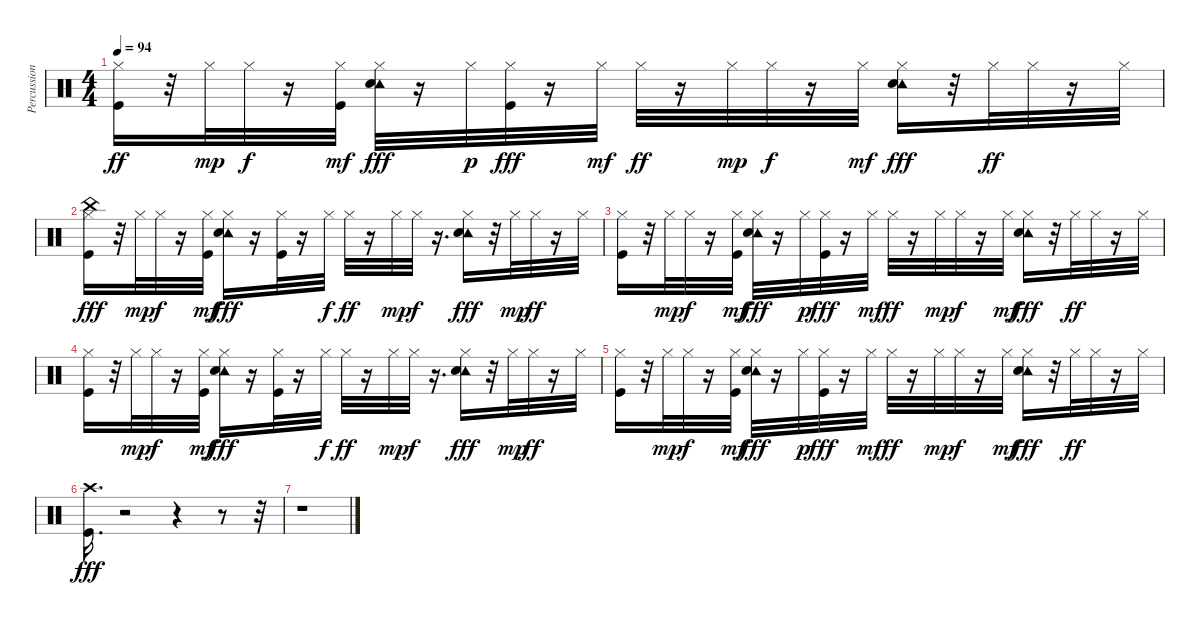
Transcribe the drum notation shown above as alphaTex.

\track ("Percussion" "Percussion") {instrument percussion}
\staff {score}
\articulation defaults
\ts (4 4)
\tempo 94
\clef neutral
\ks c
("Kick (hit)" "Hi-Hat (closed)").16{dy ff} r.32 "Hi-Hat (closed)".32{dy mp} "Hi-Hat (closed)".32{dy f} r.16 ("Kick (hit)" "Hi-Hat (closed)").32{dy mf} ("Hi-Hat (closed)" "Tambourine (hit)" "Snare (hit) 2").32{dy fff} r.16 "Hi-Hat (closed)".32{dy p} ("Kick (hit)" "Hi-Hat (closed)").32{dy fff} r.16 "Hi-Hat (closed)".32{dy mf} "Hi-Hat (closed)".32{dy ff} r.16 "Hi-Hat (closed)".32{dy mp} "Hi-Hat (closed)".32{dy f} r.16 "Hi-Hat (closed)".32{dy mf} ("Hi-Hat (closed)" "Tambourine (hit)" "Snare (hit) 2").16{dy fff} r.32 "Hi-Hat (closed)".32{dy ff} "Hi-Hat (closed)".32 r.16 "Hi-Hat (closed)".32 |
("Kick (hit)" "Hi-Hat (closed)" "China (hit)").16{dy fff} r.32 "Hi-Hat (closed)".32{dy mp} "Hi-Hat (closed)".32{dy f} r.16 ("Kick (hit)" "Hi-Hat (closed)").32{dy mf} ("Hi-Hat (closed)" "Tambourine (hit)" "Snare (hit) 2").16{dy fff} r.16 ("Kick (hit)" "Hi-Hat (closed)").32 r.16 "Hi-Hat (closed)".32{dy f} "Hi-Hat (closed)".32{dy ff} r.16 "Hi-Hat (closed)".32{dy mp} "Hi-Hat (closed)".32{dy f} r.16{d} ("Hi-Hat (closed)" "Tambourine (hit)" "Snare (hit) 2").16{dy fff} r.32 "Hi-Hat (closed)".32{dy mp} "Hi-Hat (closed)".32{dy ff} r.16 "Hi-Hat (closed)".32 |
("Kick (hit)" "Hi-Hat (closed)").16 r.32 "Hi-Hat (closed)".32{dy mp} "Hi-Hat (closed)".32{dy f} r.16 ("Kick (hit)" "Hi-Hat (closed)").32{dy mf} ("Hi-Hat (closed)" "Tambourine (hit)" "Snare (hit) 2").32{dy fff} r.16 "Hi-Hat (closed)".32{dy p} ("Kick (hit)" "Hi-Hat (closed)").32{dy fff} r.16 "Hi-Hat (closed)".32{dy mf} "Hi-Hat (closed)".32{dy ff} r.16 "Hi-Hat (closed)".32{dy mp} "Hi-Hat (closed)".32{dy f} r.16 "Hi-Hat (closed)".32{dy mf} ("Hi-Hat (closed)" "Tambourine (hit)" "Snare (hit) 2").16{dy fff} r.32 "Hi-Hat (closed)".32{dy ff} "Hi-Hat (closed)".32 r.16 "Hi-Hat (closed)".32 |
("Kick (hit)" "Hi-Hat (closed)").16 r.32 "Hi-Hat (closed)".32{dy mp} "Hi-Hat (closed)".32{dy f} r.16 ("Kick (hit)" "Hi-Hat (closed)").32{dy mf} ("Hi-Hat (closed)" "Tambourine (hit)" "Snare (hit) 2").16{dy fff} r.16 ("Kick (hit)" "Hi-Hat (closed)").32 r.16 "Hi-Hat (closed)".32{dy f} "Hi-Hat (closed)".32{dy ff} r.16 "Hi-Hat (closed)".32{dy mp} "Hi-Hat (closed)".32{dy f} r.16{d} ("Hi-Hat (closed)" "Tambourine (hit)" "Snare (hit) 2").16{dy fff} r.32 "Hi-Hat (closed)".32{dy mp} "Hi-Hat (closed)".32{dy ff} r.16 "Hi-Hat (closed)".32 |
("Kick (hit)" "Hi-Hat (closed)").16 r.32 "Hi-Hat (closed)".32{dy mp} "Hi-Hat (closed)".32{dy f} r.16 ("Kick (hit)" "Hi-Hat (closed)").32{dy mf} ("Hi-Hat (closed)" "Tambourine (hit)" "Snare (hit) 2").32{dy fff} r.16 "Hi-Hat (closed)".32{dy p} ("Kick (hit)" "Hi-Hat (closed)").32{dy fff} r.16 "Hi-Hat (closed)".32{dy mf} "Hi-Hat (closed)".32{dy ff} r.16 "Hi-Hat (closed)".32{dy mp} "Hi-Hat (closed)".32{dy f} r.16 "Hi-Hat (closed)".32{dy mf} ("Hi-Hat (closed)" "Tambourine (hit)" "Snare (hit) 2").16{dy fff} r.32 "Hi-Hat (closed)".32{dy ff} "Hi-Hat (closed)".32 r.16 "Hi-Hat (closed)".32 |
("Kick (hit)" "Crash high (hit)").16{d dy fff} r.2 r.4 r.8 r.32 |
r.1
